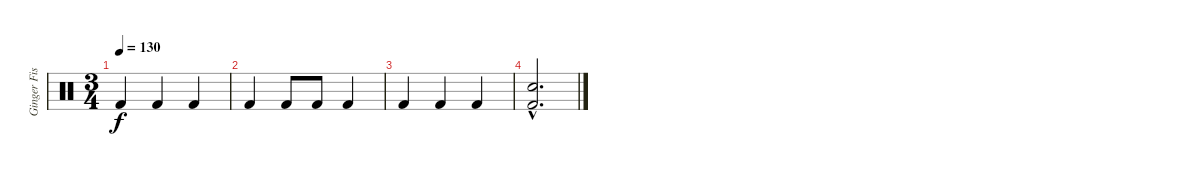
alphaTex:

\track ("Ginger Fish" "Ginger Fis") {instrument percussion}
\staff {score}
\articulation defaults
\ts (3 4)
\tempo 130
\clef neutral
\ks c "Kick (hit) 2".4{dy f} "Kick (hit) 2".4 "Kick (hit) 2".4
|
"Kick (hit) 2".4 "Kick (hit) 2".8 "Kick (hit) 2".8 "Kick (hit) 2".4 |
"Kick (hit) 2".4 "Kick (hit) 2".4 "Kick (hit) 2".4 |
("Kick (hit) 2"{hac} "Snare (hit) 2"{hac}).2{d}
